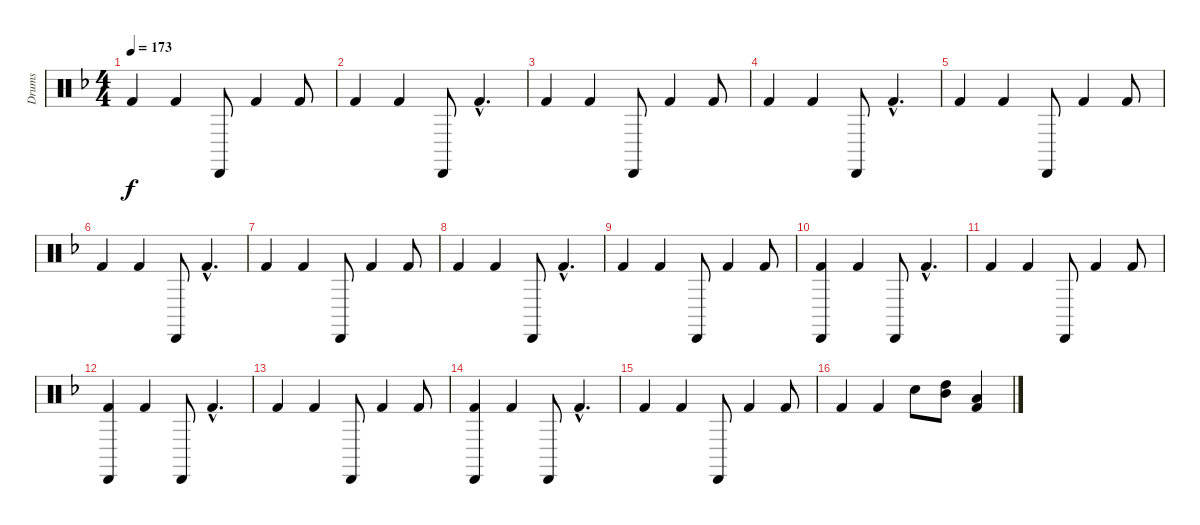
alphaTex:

\track ("Drums" "Drums") {instrument percussion}
\staff {score}
\articulation defaults
\ts (4 4)
\tempo 173
\clef neutral
\ks dminor "Kick (hit) 2".4{dy f} "Kick (hit) 2".4 "Cabasa (hit)".8 "Kick (hit) 2".4 "Kick (hit) 2".8
|
"Kick (hit) 2".4 "Kick (hit) 2".4 "Cabasa (hit)".8 "Kick (hit) 2"{hac}.4{d} |
"Kick (hit) 2".4 "Kick (hit) 2".4 "Cabasa (hit)".8 "Kick (hit) 2".4 "Kick (hit) 2".8 |
"Kick (hit) 2".4 "Kick (hit) 2".4 "Cabasa (hit)".8 "Kick (hit) 2"{hac}.4{d} |
"Kick (hit) 2".4 "Kick (hit) 2".4 "Cabasa (hit)".8 "Kick (hit) 2".4 "Kick (hit) 2".8 |
"Kick (hit) 2".4 "Kick (hit) 2".4 "Cabasa (hit)".8 "Kick (hit) 2"{hac}.4{d} |
"Kick (hit) 2".4 "Kick (hit) 2".4 "Cabasa (hit)".8 "Kick (hit) 2".4 "Kick (hit) 2".8 |
"Kick (hit) 2".4 "Kick (hit) 2".4 "Cabasa (hit)".8 "Kick (hit) 2"{hac}.4{d} |
"Kick (hit) 2".4 "Kick (hit) 2".4 "Cabasa (hit)".8 "Kick (hit) 2".4 "Kick (hit) 2".8 |
("Cabasa (hit)" "Kick (hit) 2").4 "Kick (hit) 2".4 "Cabasa (hit)".8 "Kick (hit) 2"{hac}.4{d} |
"Kick (hit) 2".4 "Kick (hit) 2".4 "Cabasa (hit)".8 "Kick (hit) 2".4 "Kick (hit) 2".8 |
("Cabasa (hit)" "Kick (hit) 2").4 "Kick (hit) 2".4 "Cabasa (hit)".8 "Kick (hit) 2"{hac}.4{d} |
"Kick (hit) 2".4 "Kick (hit) 2".4 "Cabasa (hit)".8 "Kick (hit) 2".4 "Kick (hit) 2".8 |
("Cabasa (hit)" "Kick (hit) 2").4 "Kick (hit) 2".4 "Cabasa (hit)".8 "Kick (hit) 2"{hac}.4{d} |
"Kick (hit) 2".4 "Kick (hit) 2".4 "Cabasa (hit)".8 "Kick (hit) 2".4 "Kick (hit) 2".8 |
"Kick (hit) 2".4 "Kick (hit) 2".4 "Snare (hit) 2".8 ("High Tom (hit)" "Mid Tom (hit)").8 ("Low Tom (hit)" "Kick (hit) 2").4
